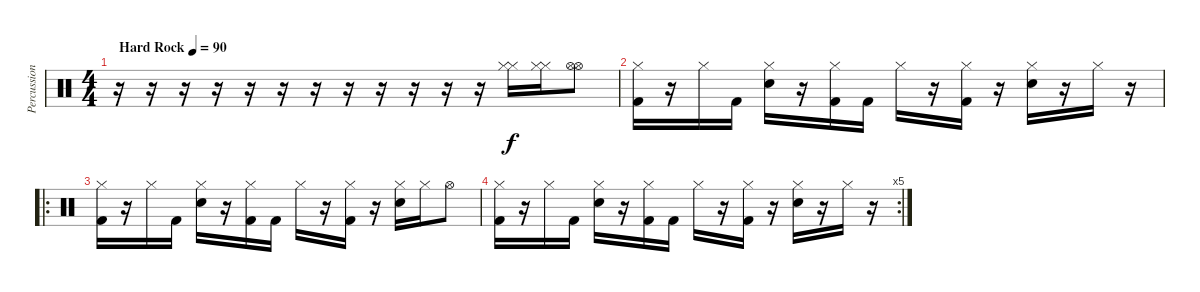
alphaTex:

\track ("Percussioni" "Percussion") {instrument percussion}
\staff {score}
\articulation defaults
\ts (4 4)
\tempo (90 "Hard Rock")
\clef neutral
\ks c
r.16{dy f} r.16 r.16 r.16 r.16 r.16 r.16 r.16 r.16 r.16 r.16 r.16 ("Hi-Hat (closed)" "Hi-Hat (closed)").16 ("Hi-Hat (closed)" "Hi-Hat (closed)").16 ("Hi-Hat (open)" "Hi-Hat (open)").8 |
("Hi-Hat (closed)" "Kick (hit) 2").16 r.16 "Hi-Hat (closed)".16 "Kick (hit) 2".16 ("Hi-Hat (closed)" "Electric Snare (hit)").16 r.16 ("Hi-Hat (closed)" "Kick (hit) 2").16 "Kick (hit) 2".16 "Hi-Hat (closed)".16 r.16 ("Hi-Hat (closed)" "Kick (hit) 2").16 r.16 ("Hi-Hat (closed)" "Electric Snare (hit)").16 r.16 "Hi-Hat (closed)".16 r.16 |
\ro
("Hi-Hat (closed)" "Kick (hit) 2").16 r.16 "Hi-Hat (closed)".16 "Kick (hit) 2".16 ("Hi-Hat (closed)" "Electric Snare (hit)").16 r.16 ("Hi-Hat (closed)" "Kick (hit) 2").16 "Kick (hit) 2".16 "Hi-Hat (closed)".16 r.16 ("Hi-Hat (closed)" "Kick (hit) 2").16 r.16 ("Hi-Hat (closed)" "Electric Snare (hit)").16 "Hi-Hat (closed)".16 "Hi-Hat (open)".8 |
\rc 5
("Hi-Hat (closed)" "Kick (hit) 2").16 r.16 "Hi-Hat (closed)".16 "Kick (hit) 2".16 ("Hi-Hat (closed)" "Electric Snare (hit)").16 r.16 ("Hi-Hat (closed)" "Kick (hit) 2").16 "Kick (hit) 2".16 "Hi-Hat (closed)".16 r.16 ("Hi-Hat (closed)" "Kick (hit) 2").16 r.16 ("Hi-Hat (closed)" "Electric Snare (hit)").16 r.16 "Hi-Hat (closed)".16 r.16
